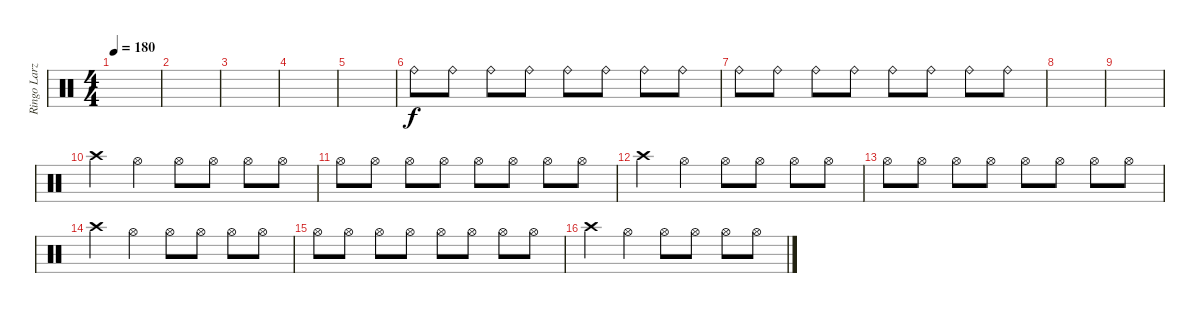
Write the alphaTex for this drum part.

\track ("Ringo Larz" "Ringo Larz") {instrument percussion}
\staff {score}
\articulation defaults
\ts (4 4)
\tempo 180
\clef neutral
\ks c
|
|
|
|
|
"Ride (bell)".8 "Ride (bell)".8 "Ride (bell)".8 "Ride (bell)".8 "Ride (bell)".8 "Ride (bell)".8 "Ride (bell)".8 "Ride (bell)".8 |
"Ride (bell)".8 "Ride (bell)".8 "Ride (bell)".8 "Ride (bell)".8 "Ride (bell)".8 "Ride (bell)".8 "Ride (bell)".8 "Ride (bell)".8 |
|
|
"Crash high (hit)".4 "Hi-Hat (open)".4 "Hi-Hat (open)".8 "Hi-Hat (open)".8 "Hi-Hat (open)".8 "Hi-Hat (open)".8 |
"Hi-Hat (open)".8 "Hi-Hat (open)".8 "Hi-Hat (open)".8 "Hi-Hat (open)".8 "Hi-Hat (open)".8 "Hi-Hat (open)".8 "Hi-Hat (open)".8 "Hi-Hat (open)".8 |
"Crash high (hit)".4 "Hi-Hat (open)".4 "Hi-Hat (open)".8 "Hi-Hat (open)".8 "Hi-Hat (open)".8 "Hi-Hat (open)".8 |
"Hi-Hat (open)".8 "Hi-Hat (open)".8 "Hi-Hat (open)".8 "Hi-Hat (open)".8 "Hi-Hat (open)".8 "Hi-Hat (open)".8 "Hi-Hat (open)".8 "Hi-Hat (open)".8 |
"Crash high (hit)".4 "Hi-Hat (open)".4 "Hi-Hat (open)".8 "Hi-Hat (open)".8 "Hi-Hat (open)".8 "Hi-Hat (open)".8 |
"Hi-Hat (open)".8 "Hi-Hat (open)".8 "Hi-Hat (open)".8 "Hi-Hat (open)".8 "Hi-Hat (open)".8 "Hi-Hat (open)".8 "Hi-Hat (open)".8 "Hi-Hat (open)".8 |
"Crash high (hit)".4 "Hi-Hat (open)".4 "Hi-Hat (open)".8 "Hi-Hat (open)".8 "Hi-Hat (open)".8 "Hi-Hat (open)".8
